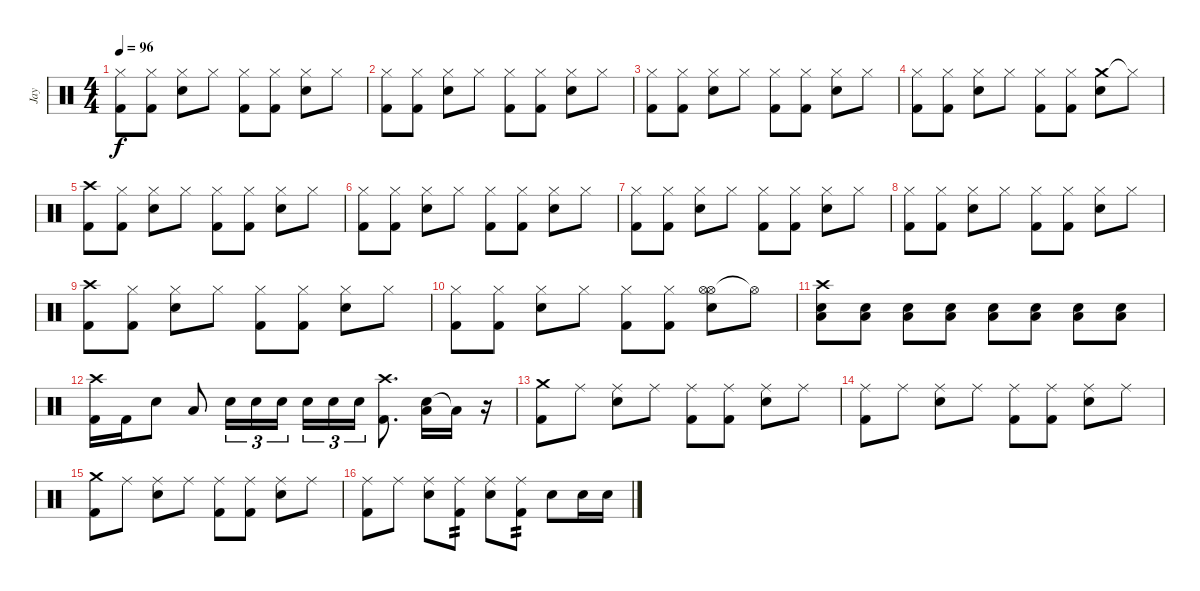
\track ("Jay" "Jay") {instrument percussion}
\staff {score}
\articulation defaults
\ts (4 4)
\tempo 96
\clef neutral
\ks c
("Hi-Hat (closed)" "Kick (hit) 2").8{dy f} ("Hi-Hat (closed)" "Kick (hit) 2").8 ("Hi-Hat (closed)" "Electric Snare (hit)").8 "Hi-Hat (closed)".8 ("Hi-Hat (closed)" "Kick (hit) 2").8 ("Hi-Hat (closed)" "Kick (hit) 2").8 ("Hi-Hat (closed)" "Electric Snare (hit)").8 "Hi-Hat (closed)".8 |
("Hi-Hat (closed)" "Kick (hit) 2").8 ("Hi-Hat (closed)" "Kick (hit) 2").8 ("Hi-Hat (closed)" "Electric Snare (hit)").8 "Hi-Hat (closed)".8 ("Hi-Hat (closed)" "Kick (hit) 2").8 ("Hi-Hat (closed)" "Kick (hit) 2").8 ("Hi-Hat (closed)" "Electric Snare (hit)").8 "Hi-Hat (closed)".8 |
("Hi-Hat (closed)" "Kick (hit) 2").8 ("Hi-Hat (closed)" "Kick (hit) 2").8 ("Hi-Hat (closed)" "Electric Snare (hit)").8 "Hi-Hat (closed)".8 ("Hi-Hat (closed)" "Kick (hit) 2").8 ("Hi-Hat (closed)" "Kick (hit) 2").8 ("Hi-Hat (closed)" "Electric Snare (hit)").8 "Hi-Hat (closed)".8 |
("Hi-Hat (closed)" "Kick (hit) 2").8 ("Hi-Hat (closed)" "Kick (hit) 2").8 ("Hi-Hat (closed)" "Electric Snare (hit)").8 "Hi-Hat (closed)".8 ("Hi-Hat (closed)" "Kick (hit) 2").8 ("Hi-Hat (closed)" "Kick (hit) 2").8 ("Crash medium (hit)" "Electric Snare (hit)").8 "Hi-Hat (closed)"{t}.8 |
("Crash high (hit)" "Kick (hit) 2").8 ("Hi-Hat (closed)" "Kick (hit) 2").8 ("Hi-Hat (closed)" "Electric Snare (hit)").8 "Hi-Hat (closed)".8 ("Hi-Hat (closed)" "Kick (hit) 2").8 ("Hi-Hat (closed)" "Kick (hit) 2").8 ("Hi-Hat (closed)" "Electric Snare (hit)").8 "Hi-Hat (closed)".8 |
("Hi-Hat (closed)" "Kick (hit) 2").8 ("Hi-Hat (closed)" "Kick (hit) 2").8 ("Hi-Hat (closed)" "Electric Snare (hit)").8 "Hi-Hat (closed)".8 ("Hi-Hat (closed)" "Kick (hit) 2").8 ("Hi-Hat (closed)" "Kick (hit) 2").8 ("Hi-Hat (closed)" "Electric Snare (hit)").8 "Hi-Hat (closed)".8 |
("Hi-Hat (closed)" "Kick (hit) 2").8 ("Hi-Hat (closed)" "Kick (hit) 2").8 ("Hi-Hat (closed)" "Electric Snare (hit)").8 "Hi-Hat (closed)".8 ("Hi-Hat (closed)" "Kick (hit) 2").8 ("Hi-Hat (closed)" "Kick (hit) 2").8 ("Hi-Hat (closed)" "Electric Snare (hit)").8 "Hi-Hat (closed)".8 |
("Hi-Hat (closed)" "Kick (hit) 2").8 ("Hi-Hat (closed)" "Kick (hit) 2").8 ("Hi-Hat (closed)" "Electric Snare (hit)").8 "Hi-Hat (closed)".8 ("Hi-Hat (closed)" "Kick (hit) 2").8 ("Hi-Hat (closed)" "Kick (hit) 2").8 ("Hi-Hat (closed)" "Electric Snare (hit)").8 "Hi-Hat (closed)".8 |
("Crash high (hit)" "Kick (hit) 2").8 ("Hi-Hat (closed)" "Kick (hit) 2").8 ("Hi-Hat (closed)" "Electric Snare (hit)").8 "Hi-Hat (closed)".8 ("Hi-Hat (closed)" "Kick (hit) 2").8 ("Hi-Hat (closed)" "Kick (hit) 2").8 ("Hi-Hat (closed)" "Electric Snare (hit)").8 "Hi-Hat (closed)".8 |
("Hi-Hat (closed)" "Kick (hit) 2").8 ("Hi-Hat (closed)" "Kick (hit) 2").8 ("Hi-Hat (closed)" "Electric Snare (hit)").8 "Hi-Hat (closed)".8 ("Hi-Hat (closed)" "Kick (hit) 2").8 ("Hi-Hat (closed)" "Kick (hit) 2").8 ("Hi-Hat (open)" "Hi-Hat (open)" "Electric Snare (hit)").8 "Hi-Hat (open)"{t}.8 |
("Crash high (hit)" "Low Tom (hit)" "Electric Snare (hit)").8 ("Low Tom (hit)" "Electric Snare (hit)").8 ("Low Tom (hit)" "Electric Snare (hit)").8 ("Low Tom (hit)" "Electric Snare (hit)").8 ("Low Tom (hit)" "Electric Snare (hit)").8 ("Low Tom (hit)" "Electric Snare (hit)").8 ("Low Tom (hit)" "Electric Snare (hit)").8 ("Low Tom (hit)" "Electric Snare (hit)").8 |
("Kick (hit) 2" "Crash high (hit)").16 "Kick (hit) 2".16 "Electric Snare (hit)".8 "Low Tom (hit)".8 "Electric Snare (hit)".16{tu (3 2)} "Electric Snare (hit)".16{tu (3 2)} "Electric Snare (hit)".16{tu (3 2)} "Electric Snare (hit)".16{tu (3 2)} "Electric Snare (hit)".16{tu (3 2)} "Electric Snare (hit)".16{tu (3 2)} ("Crash high (hit)" "Kick (hit) 2").8{d} ("Electric Snare (hit)" "Low Tom (hit)").16 "Low Tom (hit)"{t}.16 r.16 |
("Crash medium (hit)" "Kick (hit) 2").8 "Ride (middle)".8 ("Ride (middle)" "Electric Snare (hit)").8 "Ride (middle)".8 ("Ride (middle)" "Kick (hit) 2").8 ("Ride (middle)" "Kick (hit) 2").8 ("Ride (middle)" "Electric Snare (hit)").8 "Ride (middle)".8 |
("Ride (middle)" "Kick (hit) 2").8 "Ride (middle)".8 ("Ride (middle)" "Electric Snare (hit)").8 "Ride (middle)".8 ("Ride (middle)" "Kick (hit) 2").8 ("Ride (middle)" "Kick (hit) 2").8 ("Ride (middle)" "Electric Snare (hit)").8 "Ride (middle)".8 |
("Crash medium (hit)" "Kick (hit) 2").8 "Ride (middle)".8 ("Ride (middle)" "Electric Snare (hit)").8 "Ride (middle)".8 ("Ride (middle)" "Kick (hit) 2").8 ("Ride (middle)" "Kick (hit) 2").8 ("Ride (middle)" "Electric Snare (hit)").8 "Ride (middle)".8 |
("Ride (middle)" "Kick (hit) 2").8 "Ride (middle)".8 ("Ride (middle)" "Electric Snare (hit)").8 ("Ride (middle)" "Kick (hit) 2").8{tp 2} ("Ride (middle)" "Electric Snare (hit)").8 ("Ride (middle)" "Kick (hit) 2").8{tp 2} "Electric Snare (hit)".8 "Electric Snare (hit)".16 "Electric Snare (hit)".16
